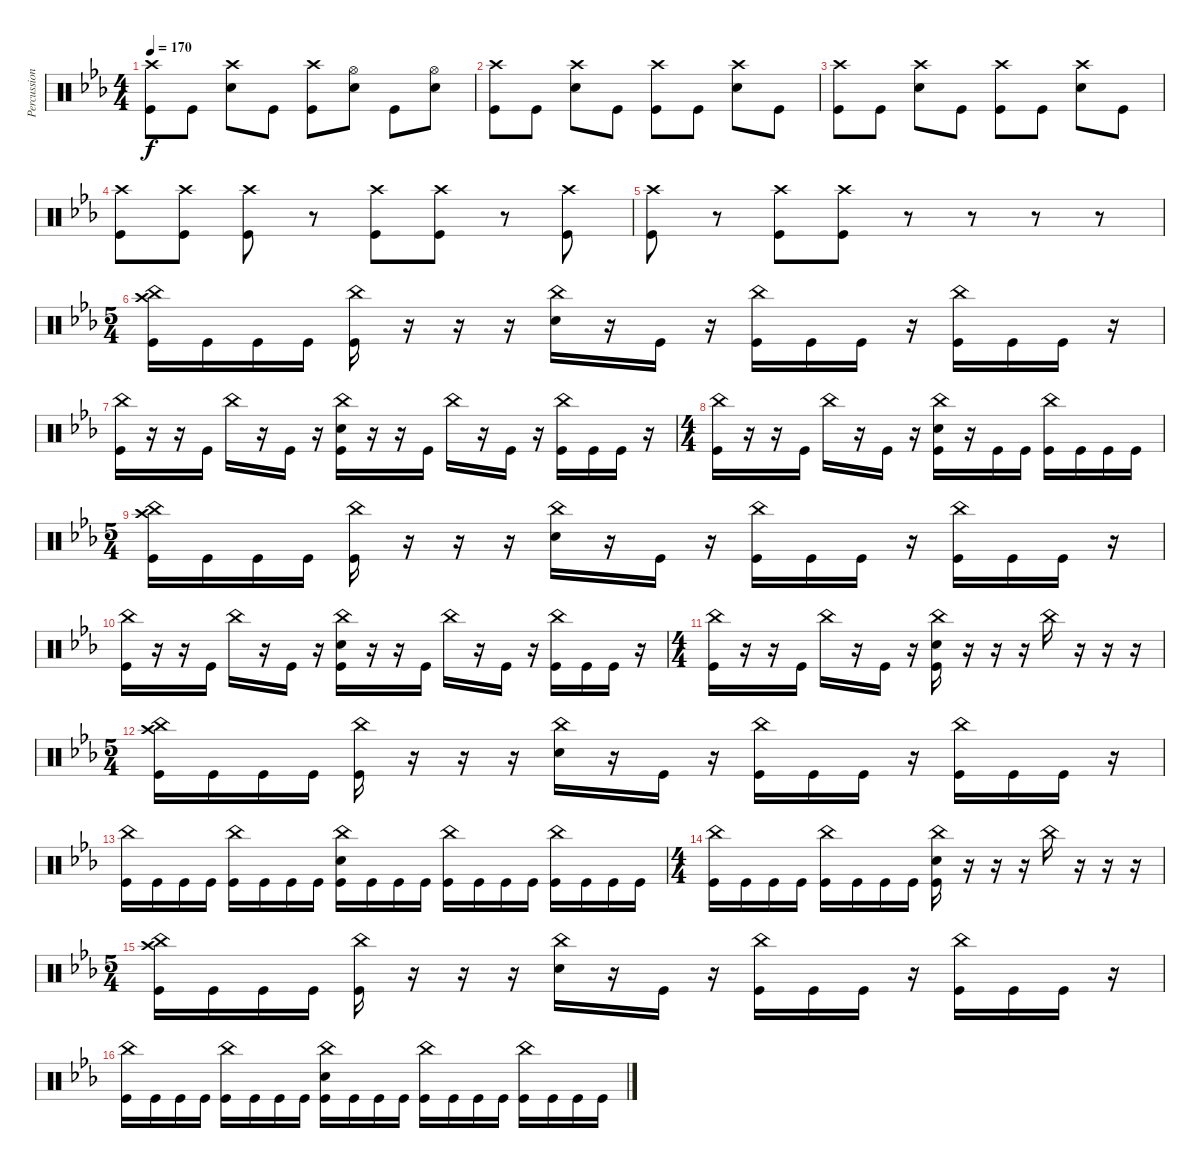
\track ("Percussion" "Percussion") {instrument percussion}
\staff {score}
\articulation defaults
\ts (4 4)
\tempo 170
\clef neutral
\ks cminor
("Crash high (hit)" "Kick (hit)").8{dy f} "Kick (hit)".8 ("Crash high (hit)" "Snare (hit) 2").8 "Kick (hit)".8 ("Crash high (hit)" "Kick (hit)").8 ("Hi-Hat (open)" "Snare (hit) 2").8 "Kick (hit)".8 ("Hi-Hat (open)" "Snare (hit) 2").8 |
("Crash high (hit)" "Kick (hit)").8 "Kick (hit)".8 ("Crash high (hit)" "Snare (hit) 2").8 "Kick (hit)".8 ("Crash high (hit)" "Kick (hit)").8 "Kick (hit)".8 ("Crash high (hit)" "Snare (hit) 2").8 "Kick (hit)".8 |
("Crash high (hit)" "Kick (hit)").8 "Kick (hit)".8 ("Crash high (hit)" "Snare (hit) 2").8 "Kick (hit)".8 ("Crash high (hit)" "Kick (hit)").8 "Kick (hit)".8 ("Crash high (hit)" "Snare (hit) 2").8 "Kick (hit)".8 |
("Crash high (hit)" "Kick (hit)").8 ("Crash high (hit)" "Kick (hit)").8 ("Crash high (hit)" "Kick (hit)").8 r.8{volume 3} ("Crash high (hit)" "Kick (hit)").8{volume 11} ("Crash high (hit)" "Kick (hit)").8 r.8{volume 3} ("Crash high (hit)" "Kick (hit)").8{volume 11} |
("Crash high (hit)" "Kick (hit)").8 r.8{volume 4} ("Crash high (hit)" "Kick (hit)").8{volume 11} ("Crash high (hit)" "Kick (hit)").8 r.8{volume 5} r.8 r.8 r.8 |
\ts (5 4)
("China (hit)" "Crash high (hit)" "Kick (hit)").16{volume 13} "Kick (hit)".16 "Kick (hit)".16 "Kick (hit)".16 ("China (hit)" "Kick (hit)").16 r.16 r.16 r.16 ("China (hit)" "Snare (hit) 2").16 r.16 "Kick (hit)".16 r.16 ("China (hit)" "Kick (hit)").16 "Kick (hit)".16 "Kick (hit)".16 r.16 ("China (hit)" "Kick (hit)").16 "Kick (hit)".16 "Kick (hit)".16 r.16 |
("China (hit)" "Kick (hit)").16 r.16 r.16 "Kick (hit)".16 "China (hit)".16 r.16 "Kick (hit)".16 r.16 ("China (hit)" "Snare (hit) 2" "Kick (hit)").16 r.16 r.16 "Kick (hit)".16 "China (hit)".16 r.16 "Kick (hit)".16 r.16 ("China (hit)" "Kick (hit)").16 "Kick (hit)".16 "Kick (hit)".16 r.16 |
\ts (4 4)
("China (hit)" "Kick (hit)").16 r.16 r.16 "Kick (hit)".16 "China (hit)".16 r.16 "Kick (hit)".16 r.16 ("China (hit)" "Snare (hit) 2" "Kick (hit)").16 r.16 "Kick (hit)".16 "Kick (hit)".16 ("China (hit)" "Kick (hit)").16 "Kick (hit)".16 "Kick (hit)".16 "Kick (hit)".16 |
\ts (5 4)
("China (hit)" "Crash high (hit)" "Kick (hit)").16 "Kick (hit)".16 "Kick (hit)".16 "Kick (hit)".16 ("China (hit)" "Kick (hit)").16 r.16 r.16 r.16 ("China (hit)" "Snare (hit) 2").16 r.16 "Kick (hit)".16 r.16 ("China (hit)" "Kick (hit)").16 "Kick (hit)".16 "Kick (hit)".16 r.16 ("China (hit)" "Kick (hit)").16 "Kick (hit)".16 "Kick (hit)".16 r.16 |
("China (hit)" "Kick (hit)").16 r.16 r.16 "Kick (hit)".16 "China (hit)".16 r.16 "Kick (hit)".16 r.16 ("China (hit)" "Snare (hit) 2" "Kick (hit)").16 r.16 r.16 "Kick (hit)".16 "China (hit)".16 r.16 "Kick (hit)".16 r.16 ("China (hit)" "Kick (hit)").16 "Kick (hit)".16 "Kick (hit)".16 r.16 |
\ts (4 4)
("China (hit)" "Kick (hit)").16 r.16 r.16 "Kick (hit)".16 "China (hit)".16 r.16 "Kick (hit)".16 r.16 ("China (hit)" "Snare (hit) 2" "Kick (hit)").16 r.16 r.16 r.16 "China (hit)".16 r.16 r.16 r.16 |
\ts (5 4)
("China (hit)" "Crash high (hit)" "Kick (hit)").16 "Kick (hit)".16 "Kick (hit)".16 "Kick (hit)".16 ("China (hit)" "Kick (hit)").16 r.16 r.16 r.16 ("China (hit)" "Snare (hit) 2").16 r.16 "Kick (hit)".16 r.16 ("China (hit)" "Kick (hit)").16 "Kick (hit)".16 "Kick (hit)".16 r.16 ("China (hit)" "Kick (hit)").16 "Kick (hit)".16 "Kick (hit)".16 r.16 |
("China (hit)" "Kick (hit)").16 "Kick (hit)".16 "Kick (hit)".16 "Kick (hit)".16 ("China (hit)" "Kick (hit)").16 "Kick (hit)".16 "Kick (hit)".16 "Kick (hit)".16 ("China (hit)" "Snare (hit) 2" "Kick (hit)").16 "Kick (hit)".16 "Kick (hit)".16 "Kick (hit)".16 ("China (hit)" "Kick (hit)").16 "Kick (hit)".16 "Kick (hit)".16 "Kick (hit)".16 ("China (hit)" "Kick (hit)").16 "Kick (hit)".16 "Kick (hit)".16 "Kick (hit)".16 |
\ts (4 4)
("China (hit)" "Kick (hit)").16 "Kick (hit)".16 "Kick (hit)".16 "Kick (hit)".16 ("China (hit)" "Kick (hit)").16 "Kick (hit)".16 "Kick (hit)".16 "Kick (hit)".16 ("China (hit)" "Snare (hit) 2" "Kick (hit)").16 r.16 r.16 r.16 "China (hit)".16 r.16 r.16 r.16 |
\ts (5 4)
("China (hit)" "Crash high (hit)" "Kick (hit)").16 "Kick (hit)".16 "Kick (hit)".16 "Kick (hit)".16 ("China (hit)" "Kick (hit)").16 r.16 r.16 r.16 ("China (hit)" "Snare (hit) 2").16 r.16 "Kick (hit)".16 r.16 ("China (hit)" "Kick (hit)").16 "Kick (hit)".16 "Kick (hit)".16 r.16 ("China (hit)" "Kick (hit)").16 "Kick (hit)".16 "Kick (hit)".16 r.16 |
("China (hit)" "Kick (hit)").16 "Kick (hit)".16 "Kick (hit)".16 "Kick (hit)".16 ("China (hit)" "Kick (hit)").16 "Kick (hit)".16 "Kick (hit)".16 "Kick (hit)".16 ("China (hit)" "Snare (hit) 2" "Kick (hit)").16 "Kick (hit)".16 "Kick (hit)".16 "Kick (hit)".16 ("China (hit)" "Kick (hit)").16 "Kick (hit)".16 "Kick (hit)".16 "Kick (hit)".16 ("China (hit)" "Kick (hit)").16 "Kick (hit)".16 "Kick (hit)".16 "Kick (hit)".16
